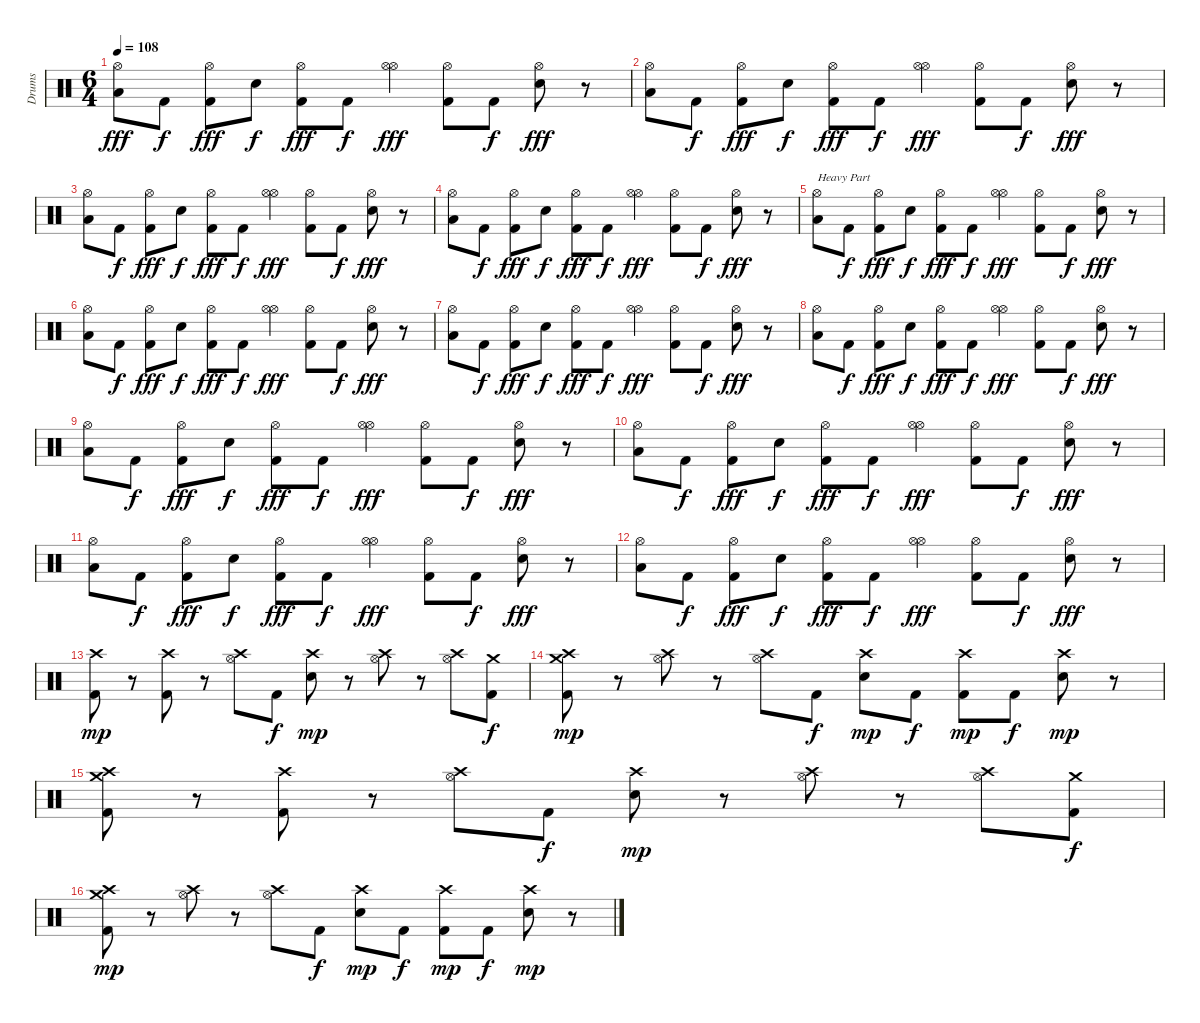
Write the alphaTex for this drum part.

\track ("Drums" "Drums") {instrument percussion}
\staff {score}
\articulation defaults
\ts (6 4)
\tempo 108
\clef neutral
\ks c
("Hi-Hat (open)" "Low Tom (hit)").8{dy fff} "Kick (hit) 2".8{dy f} ("Hi-Hat (open)" "Kick (hit) 2").8{dy fff} "Snare (hit) 2".8{dy f} ("Hi-Hat (open)" "Kick (hit) 2").8{dy fff} "Kick (hit) 2".8{dy f} ("Hi-Hat (open)" "Hi-Hat (open)").4{dy fff} ("Hi-Hat (open)" "Kick (hit) 2").8 "Kick (hit) 2".8{dy f} ("Hi-Hat (open)" "Snare (hit) 2").8{dy fff} r.8 |
("Hi-Hat (open)" "Low Tom (hit)").8 "Kick (hit) 2".8{dy f} ("Hi-Hat (open)" "Kick (hit) 2").8{dy fff} "Snare (hit) 2".8{dy f} ("Hi-Hat (open)" "Kick (hit) 2").8{dy fff} "Kick (hit) 2".8{dy f} ("Hi-Hat (open)" "Hi-Hat (open)").4{dy fff} ("Hi-Hat (open)" "Kick (hit) 2").8 "Kick (hit) 2".8{dy f} ("Hi-Hat (open)" "Snare (hit) 2").8{dy fff} r.8 |
("Hi-Hat (open)" "Low Tom (hit)").8 "Kick (hit) 2".8{dy f} ("Hi-Hat (open)" "Kick (hit) 2").8{dy fff} "Snare (hit) 2".8{dy f} ("Hi-Hat (open)" "Kick (hit) 2").8{dy fff} "Kick (hit) 2".8{dy f} ("Hi-Hat (open)" "Hi-Hat (open)").4{dy fff} ("Hi-Hat (open)" "Kick (hit) 2").8 "Kick (hit) 2".8{dy f} ("Hi-Hat (open)" "Snare (hit) 2").8{dy fff} r.8 |
("Hi-Hat (open)" "Low Tom (hit)").8 "Kick (hit) 2".8{dy f} ("Hi-Hat (open)" "Kick (hit) 2").8{dy fff} "Snare (hit) 2".8{dy f} ("Hi-Hat (open)" "Kick (hit) 2").8{dy fff} "Kick (hit) 2".8{dy f} ("Hi-Hat (open)" "Hi-Hat (open)").4{dy fff} ("Hi-Hat (open)" "Kick (hit) 2").8 "Kick (hit) 2".8{dy f} ("Hi-Hat (open)" "Snare (hit) 2").8{dy fff} r.8 |
("Hi-Hat (open)" "Low Tom (hit)").8{txt "Heavy Part"} "Kick (hit) 2".8{dy f} ("Hi-Hat (open)" "Kick (hit) 2").8{dy fff} "Snare (hit) 2".8{dy f} ("Hi-Hat (open)" "Kick (hit) 2").8{dy fff} "Kick (hit) 2".8{dy f} ("Hi-Hat (open)" "Hi-Hat (open)").4{dy fff} ("Hi-Hat (open)" "Kick (hit) 2").8 "Kick (hit) 2".8{dy f} ("Hi-Hat (open)" "Snare (hit) 2").8{dy fff} r.8 |
("Hi-Hat (open)" "Low Tom (hit)").8 "Kick (hit) 2".8{dy f} ("Hi-Hat (open)" "Kick (hit) 2").8{dy fff} "Snare (hit) 2".8{dy f} ("Hi-Hat (open)" "Kick (hit) 2").8{dy fff} "Kick (hit) 2".8{dy f} ("Hi-Hat (open)" "Hi-Hat (open)").4{dy fff} ("Hi-Hat (open)" "Kick (hit) 2").8 "Kick (hit) 2".8{dy f} ("Hi-Hat (open)" "Snare (hit) 2").8{dy fff} r.8 |
("Hi-Hat (open)" "Low Tom (hit)").8 "Kick (hit) 2".8{dy f} ("Hi-Hat (open)" "Kick (hit) 2").8{dy fff} "Snare (hit) 2".8{dy f} ("Hi-Hat (open)" "Kick (hit) 2").8{dy fff} "Kick (hit) 2".8{dy f} ("Hi-Hat (open)" "Hi-Hat (open)").4{dy fff} ("Hi-Hat (open)" "Kick (hit) 2").8 "Kick (hit) 2".8{dy f} ("Hi-Hat (open)" "Snare (hit) 2").8{dy fff} r.8 |
("Hi-Hat (open)" "Low Tom (hit)").8 "Kick (hit) 2".8{dy f} ("Hi-Hat (open)" "Kick (hit) 2").8{dy fff} "Snare (hit) 2".8{dy f} ("Hi-Hat (open)" "Kick (hit) 2").8{dy fff} "Kick (hit) 2".8{dy f} ("Hi-Hat (open)" "Hi-Hat (open)").4{dy fff} ("Hi-Hat (open)" "Kick (hit) 2").8 "Kick (hit) 2".8{dy f} ("Hi-Hat (open)" "Snare (hit) 2").8{dy fff} r.8 |
("Hi-Hat (open)" "Low Tom (hit)").8 "Kick (hit) 2".8{dy f} ("Hi-Hat (open)" "Kick (hit) 2").8{dy fff} "Snare (hit) 2".8{dy f} ("Hi-Hat (open)" "Kick (hit) 2").8{dy fff} "Kick (hit) 2".8{dy f} ("Hi-Hat (open)" "Hi-Hat (open)").4{dy fff} ("Hi-Hat (open)" "Kick (hit) 2").8 "Kick (hit) 2".8{dy f} ("Hi-Hat (open)" "Snare (hit) 2").8{dy fff} r.8 |
("Hi-Hat (open)" "Low Tom (hit)").8 "Kick (hit) 2".8{dy f} ("Hi-Hat (open)" "Kick (hit) 2").8{dy fff} "Snare (hit) 2".8{dy f} ("Hi-Hat (open)" "Kick (hit) 2").8{dy fff} "Kick (hit) 2".8{dy f} ("Hi-Hat (open)" "Hi-Hat (open)").4{dy fff} ("Hi-Hat (open)" "Kick (hit) 2").8 "Kick (hit) 2".8{dy f} ("Hi-Hat (open)" "Snare (hit) 2").8{dy fff} r.8 |
("Hi-Hat (open)" "Low Tom (hit)").8 "Kick (hit) 2".8{dy f} ("Hi-Hat (open)" "Kick (hit) 2").8{dy fff} "Snare (hit) 2".8{dy f} ("Hi-Hat (open)" "Kick (hit) 2").8{dy fff} "Kick (hit) 2".8{dy f} ("Hi-Hat (open)" "Hi-Hat (open)").4{dy fff} ("Hi-Hat (open)" "Kick (hit) 2").8 "Kick (hit) 2".8{dy f} ("Hi-Hat (open)" "Snare (hit) 2").8{dy fff} r.8 |
("Hi-Hat (open)" "Low Tom (hit)").8 "Kick (hit) 2".8{dy f} ("Hi-Hat (open)" "Kick (hit) 2").8{dy fff} "Snare (hit) 2".8{dy f} ("Hi-Hat (open)" "Kick (hit) 2").8{dy fff} "Kick (hit) 2".8{dy f} ("Hi-Hat (open)" "Hi-Hat (open)").4{dy fff} ("Hi-Hat (open)" "Kick (hit) 2").8 "Kick (hit) 2".8{dy f} ("Hi-Hat (open)" "Snare (hit) 2").8{dy fff} r.8 |
("Crash high (hit)" "Kick (hit) 2").8{dy mp} r.8 ("Crash high (hit)" "Kick (hit) 2").8 r.8 ("Crash high (hit)" "Hi-Hat (open)").8 "Kick (hit) 2".8{dy f} ("Crash high (hit)" "Snare (hit) 2").8{dy mp} r.8 ("Crash high (hit)" "Hi-Hat (open)").8 r.8 ("Crash high (hit)" "Hi-Hat (open)").8 ("Crash medium (hit)" "Kick (hit) 2").8{dy f} |
("Crash high (hit)" "Crash medium (hit)" "Kick (hit) 2").8{dy mp} r.8 ("Crash high (hit)" "Hi-Hat (open)").8 r.8 ("Crash high (hit)" "Hi-Hat (open)").8 "Kick (hit) 2".8{dy f} ("Crash high (hit)" "Snare (hit) 2").8{dy mp} "Kick (hit) 2".8{dy f} ("Crash high (hit)" "Kick (hit) 2").8{dy mp} "Kick (hit) 2".8{dy f} ("Crash high (hit)" "Snare (hit) 2").8{dy mp} r.8 |
("Crash high (hit)" "Crash medium (hit)" "Kick (hit) 2").8 r.8 ("Crash high (hit)" "Kick (hit) 2").8 r.8 ("Crash high (hit)" "Hi-Hat (open)").8 "Kick (hit) 2".8{dy f} ("Crash high (hit)" "Snare (hit) 2").8{dy mp} r.8 ("Crash high (hit)" "Hi-Hat (open)").8 r.8 ("Crash high (hit)" "Hi-Hat (open)").8 ("Crash medium (hit)" "Kick (hit) 2").8{dy f} |
("Crash high (hit)" "Crash medium (hit)" "Kick (hit) 2").8{dy mp} r.8 ("Crash high (hit)" "Hi-Hat (open)").8 r.8 ("Crash high (hit)" "Hi-Hat (open)").8 "Kick (hit) 2".8{dy f} ("Crash high (hit)" "Snare (hit) 2").8{dy mp} "Kick (hit) 2".8{dy f} ("Crash high (hit)" "Kick (hit) 2").8{dy mp} "Kick (hit) 2".8{dy f} ("Crash high (hit)" "Snare (hit) 2").8{dy mp} r.8
